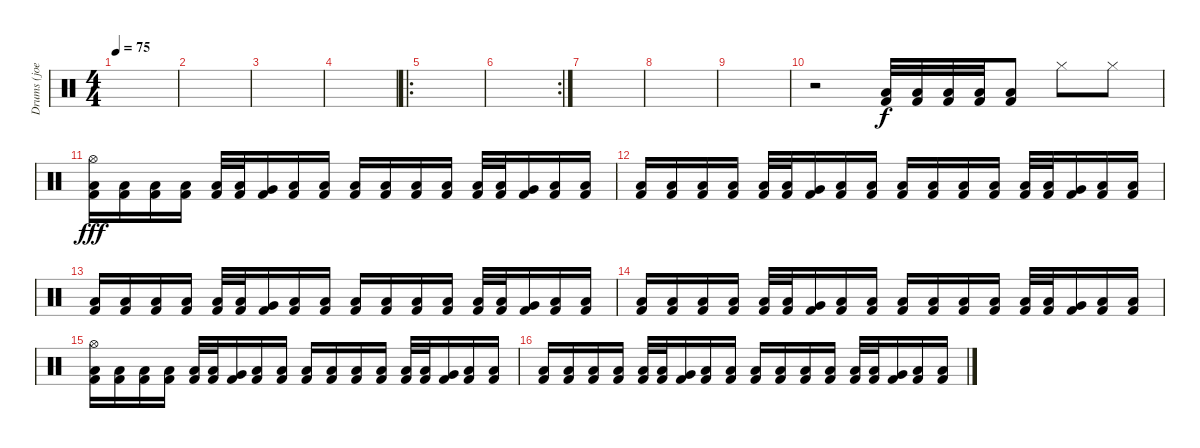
\track ("Drums (joey)" "Drums (joe") {instrument percussion}
\staff {score}
\articulation defaults
\ts (4 4)
\tempo 75
\clef neutral
\ks c
|
|
|
|
\ro
|
\rc 2
|
|
|
|
r.2 ("Low Floor Tom (hit)" "Kick (hit) 2").32 ("Low Floor Tom (hit)" "Kick (hit) 2").32 ("Low Floor Tom (hit)" "Kick (hit) 2").32 ("Low Floor Tom (hit)" "Kick (hit) 2").32 ("Low Floor Tom (hit)" "Kick (hit) 2").8 "Hi-Hat (closed)".8{dy f} "Hi-Hat (closed)".8 |
("Hi-Hat (open)" "Low Floor Tom (hit)" "Kick (hit) 2").16{dy fff} ("Low Floor Tom (hit)" "Kick (hit) 2").16 ("Low Floor Tom (hit)" "Kick (hit) 2").16 ("Low Floor Tom (hit)" "Kick (hit) 2").16 ("Low Tom (hit)" "Kick (hit) 2").32 ("Low Tom (hit)" "Kick (hit) 2").32 ("Very Low Tom (hit)" "Kick (hit) 2").16 ("Low Floor Tom (hit)" "Kick (hit) 2").16 ("Low Floor Tom (hit)" "Kick (hit) 2").16 ("Low Floor Tom (hit)" "Kick (hit) 2").16 ("Low Floor Tom (hit)" "Kick (hit) 2").16 ("Low Floor Tom (hit)" "Kick (hit) 2").16 ("Low Floor Tom (hit)" "Kick (hit) 2").16 ("Low Tom (hit)" "Kick (hit) 2").32 ("Low Tom (hit)" "Kick (hit) 2").32 ("Very Low Tom (hit)" "Kick (hit) 2").16 ("Low Floor Tom (hit)" "Kick (hit) 2").16 ("Low Floor Tom (hit)" "Kick (hit) 2").16 |
("Low Floor Tom (hit)" "Kick (hit) 2").16 ("Low Floor Tom (hit)" "Kick (hit) 2").16 ("Low Floor Tom (hit)" "Kick (hit) 2").16 ("Low Floor Tom (hit)" "Kick (hit) 2").16 ("Low Tom (hit)" "Kick (hit) 2").32 ("Low Tom (hit)" "Kick (hit) 2").32 ("Very Low Tom (hit)" "Kick (hit) 2").16 ("Low Floor Tom (hit)" "Kick (hit) 2").16 ("Low Floor Tom (hit)" "Kick (hit) 2").16 ("Low Floor Tom (hit)" "Kick (hit) 2").16 ("Low Floor Tom (hit)" "Kick (hit) 2").16 ("Low Floor Tom (hit)" "Kick (hit) 2").16 ("Low Floor Tom (hit)" "Kick (hit) 2").16 ("Low Tom (hit)" "Kick (hit) 2").32 ("Low Tom (hit)" "Kick (hit) 2").32 ("Very Low Tom (hit)" "Kick (hit) 2").16 ("Low Floor Tom (hit)" "Kick (hit) 2").16 ("Low Floor Tom (hit)" "Kick (hit) 2").16 |
("Low Floor Tom (hit)" "Kick (hit) 2").16 ("Low Floor Tom (hit)" "Kick (hit) 2").16 ("Low Floor Tom (hit)" "Kick (hit) 2").16 ("Low Floor Tom (hit)" "Kick (hit) 2").16 ("Low Tom (hit)" "Kick (hit) 2").32 ("Low Tom (hit)" "Kick (hit) 2").32 ("Very Low Tom (hit)" "Kick (hit) 2").16 ("Low Floor Tom (hit)" "Kick (hit) 2").16 ("Low Floor Tom (hit)" "Kick (hit) 2").16 ("Low Floor Tom (hit)" "Kick (hit) 2").16 ("Low Floor Tom (hit)" "Kick (hit) 2").16 ("Low Floor Tom (hit)" "Kick (hit) 2").16 ("Low Floor Tom (hit)" "Kick (hit) 2").16 ("Low Tom (hit)" "Kick (hit) 2").32 ("Low Tom (hit)" "Kick (hit) 2").32 ("Very Low Tom (hit)" "Kick (hit) 2").16 ("Low Floor Tom (hit)" "Kick (hit) 2").16 ("Low Floor Tom (hit)" "Kick (hit) 2").16 |
("Low Floor Tom (hit)" "Kick (hit) 2").16 ("Low Floor Tom (hit)" "Kick (hit) 2").16 ("Low Floor Tom (hit)" "Kick (hit) 2").16 ("Low Floor Tom (hit)" "Kick (hit) 2").16 ("Low Tom (hit)" "Kick (hit) 2").32 ("Low Tom (hit)" "Kick (hit) 2").32 ("Very Low Tom (hit)" "Kick (hit) 2").16 ("Low Floor Tom (hit)" "Kick (hit) 2").16 ("Low Floor Tom (hit)" "Kick (hit) 2").16 ("Low Floor Tom (hit)" "Kick (hit) 2").16 ("Low Floor Tom (hit)" "Kick (hit) 2").16 ("Low Floor Tom (hit)" "Kick (hit) 2").16 ("Low Floor Tom (hit)" "Kick (hit) 2").16 ("Low Tom (hit)" "Kick (hit) 2").32 ("Low Tom (hit)" "Kick (hit) 2").32 ("Very Low Tom (hit)" "Kick (hit) 2").16 ("Low Floor Tom (hit)" "Kick (hit) 2").16 ("Low Floor Tom (hit)" "Kick (hit) 2").16 |
("Hi-Hat (open)" "Low Floor Tom (hit)" "Kick (hit) 2").16 ("Low Floor Tom (hit)" "Kick (hit) 2").16 ("Low Floor Tom (hit)" "Kick (hit) 2").16 ("Low Floor Tom (hit)" "Kick (hit) 2").16 ("Low Tom (hit)" "Kick (hit) 2").32 ("Low Tom (hit)" "Kick (hit) 2").32 ("Very Low Tom (hit)" "Kick (hit) 2").16 ("Low Floor Tom (hit)" "Kick (hit) 2").16 ("Low Floor Tom (hit)" "Kick (hit) 2").16 ("Low Floor Tom (hit)" "Kick (hit) 2").16 ("Low Floor Tom (hit)" "Kick (hit) 2").16 ("Low Floor Tom (hit)" "Kick (hit) 2").16 ("Low Floor Tom (hit)" "Kick (hit) 2").16 ("Low Tom (hit)" "Kick (hit) 2").32 ("Low Tom (hit)" "Kick (hit) 2").32 ("Very Low Tom (hit)" "Kick (hit) 2").16 ("Low Floor Tom (hit)" "Kick (hit) 2").16 ("Low Floor Tom (hit)" "Kick (hit) 2").16 |
("Low Floor Tom (hit)" "Kick (hit) 2").16 ("Low Floor Tom (hit)" "Kick (hit) 2").16 ("Low Floor Tom (hit)" "Kick (hit) 2").16 ("Low Floor Tom (hit)" "Kick (hit) 2").16 ("Low Tom (hit)" "Kick (hit) 2").32 ("Low Tom (hit)" "Kick (hit) 2").32 ("Very Low Tom (hit)" "Kick (hit) 2").16 ("Low Floor Tom (hit)" "Kick (hit) 2").16 ("Low Floor Tom (hit)" "Kick (hit) 2").16 ("Low Floor Tom (hit)" "Kick (hit) 2").16 ("Low Floor Tom (hit)" "Kick (hit) 2").16 ("Low Floor Tom (hit)" "Kick (hit) 2").16 ("Low Floor Tom (hit)" "Kick (hit) 2").16 ("Low Tom (hit)" "Kick (hit) 2").32 ("Low Tom (hit)" "Kick (hit) 2").32 ("Very Low Tom (hit)" "Kick (hit) 2").16 ("Low Floor Tom (hit)" "Kick (hit) 2").16 ("Low Floor Tom (hit)" "Kick (hit) 2").16
